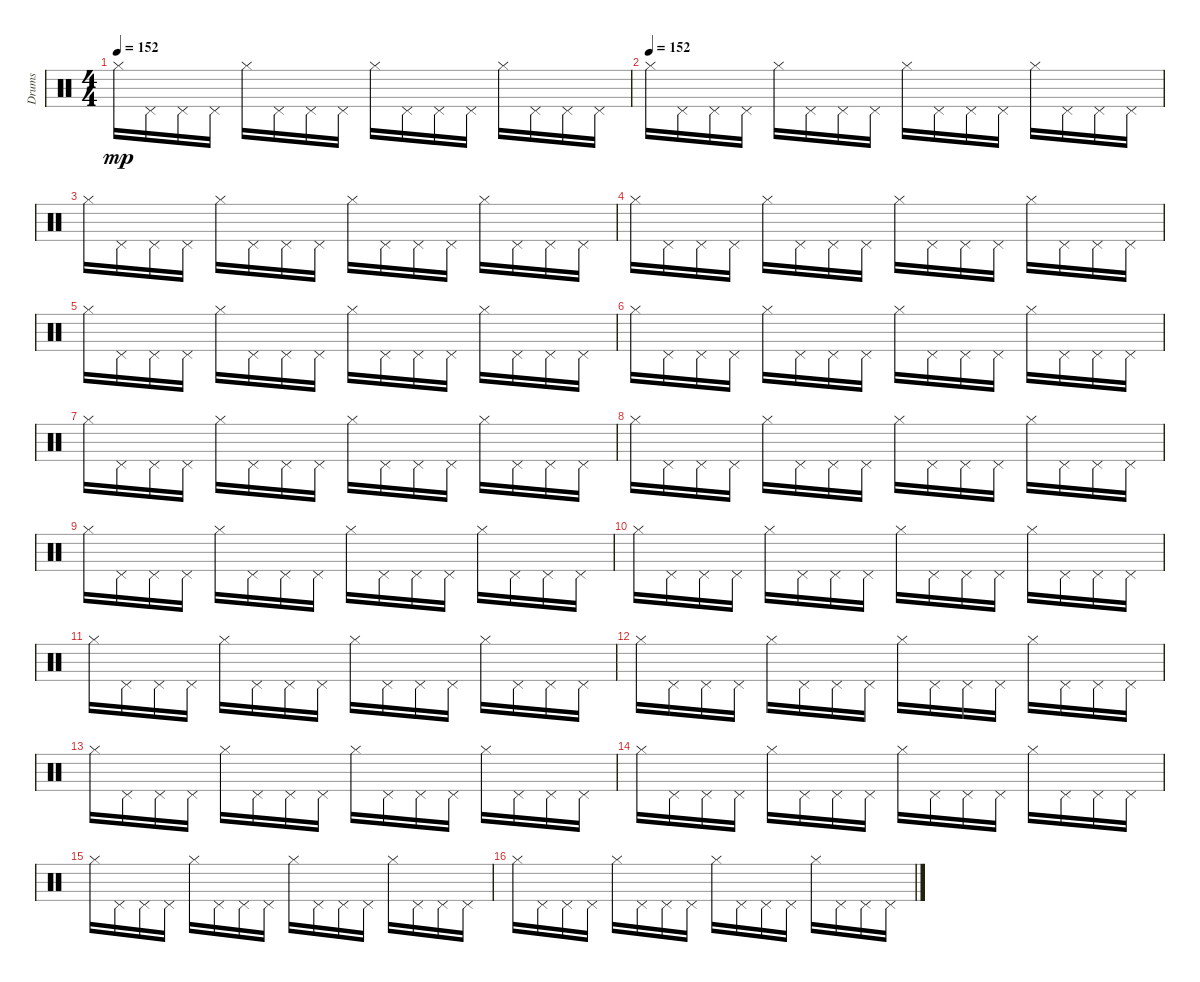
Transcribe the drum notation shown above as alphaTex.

\track ("Drums" "Drums") {instrument percussion}
\staff {score}
\articulation defaults
\ts (4 4)
\tempo 152
\clef neutral
\ks c "Hi-Hat (closed)".16{dy mp} "Pedal Hi-Hat (hit)".16 "Pedal Hi-Hat (hit)".16 "Pedal Hi-Hat (hit)".16 "Hi-Hat (closed)".16 "Pedal Hi-Hat (hit)".16 "Pedal Hi-Hat (hit)".16 "Pedal Hi-Hat (hit)".16 "Hi-Hat (closed)".16 "Pedal Hi-Hat (hit)".16 "Pedal Hi-Hat (hit)".16 "Pedal Hi-Hat (hit)".16 "Hi-Hat (closed)".16 "Pedal Hi-Hat (hit)".16 "Pedal Hi-Hat (hit)".16 "Pedal Hi-Hat (hit)".16
|
\tempo (152)
"Hi-Hat (closed)".16 "Pedal Hi-Hat (hit)".16 "Pedal Hi-Hat (hit)".16 "Pedal Hi-Hat (hit)".16 "Hi-Hat (closed)".16 "Pedal Hi-Hat (hit)".16 "Pedal Hi-Hat (hit)".16 "Pedal Hi-Hat (hit)".16 "Hi-Hat (closed)".16 "Pedal Hi-Hat (hit)".16 "Pedal Hi-Hat (hit)".16 "Pedal Hi-Hat (hit)".16 "Hi-Hat (closed)".16 "Pedal Hi-Hat (hit)".16 "Pedal Hi-Hat (hit)".16 "Pedal Hi-Hat (hit)".16 |
"Hi-Hat (closed)".16 "Pedal Hi-Hat (hit)".16 "Pedal Hi-Hat (hit)".16 "Pedal Hi-Hat (hit)".16 "Hi-Hat (closed)".16 "Pedal Hi-Hat (hit)".16 "Pedal Hi-Hat (hit)".16 "Pedal Hi-Hat (hit)".16 "Hi-Hat (closed)".16 "Pedal Hi-Hat (hit)".16 "Pedal Hi-Hat (hit)".16 "Pedal Hi-Hat (hit)".16 "Hi-Hat (closed)".16 "Pedal Hi-Hat (hit)".16 "Pedal Hi-Hat (hit)".16 "Pedal Hi-Hat (hit)".16 |
"Hi-Hat (closed)".16 "Pedal Hi-Hat (hit)".16 "Pedal Hi-Hat (hit)".16 "Pedal Hi-Hat (hit)".16 "Hi-Hat (closed)".16 "Pedal Hi-Hat (hit)".16 "Pedal Hi-Hat (hit)".16 "Pedal Hi-Hat (hit)".16 "Hi-Hat (closed)".16 "Pedal Hi-Hat (hit)".16 "Pedal Hi-Hat (hit)".16 "Pedal Hi-Hat (hit)".16 "Hi-Hat (closed)".16 "Pedal Hi-Hat (hit)".16 "Pedal Hi-Hat (hit)".16 "Pedal Hi-Hat (hit)".16 |
"Hi-Hat (closed)".16 "Pedal Hi-Hat (hit)".16 "Pedal Hi-Hat (hit)".16 "Pedal Hi-Hat (hit)".16 "Hi-Hat (closed)".16 "Pedal Hi-Hat (hit)".16 "Pedal Hi-Hat (hit)".16 "Pedal Hi-Hat (hit)".16 "Hi-Hat (closed)".16 "Pedal Hi-Hat (hit)".16 "Pedal Hi-Hat (hit)".16 "Pedal Hi-Hat (hit)".16 "Hi-Hat (closed)".16 "Pedal Hi-Hat (hit)".16 "Pedal Hi-Hat (hit)".16 "Pedal Hi-Hat (hit)".16 |
"Hi-Hat (closed)".16 "Pedal Hi-Hat (hit)".16 "Pedal Hi-Hat (hit)".16 "Pedal Hi-Hat (hit)".16 "Hi-Hat (closed)".16 "Pedal Hi-Hat (hit)".16 "Pedal Hi-Hat (hit)".16 "Pedal Hi-Hat (hit)".16 "Hi-Hat (closed)".16 "Pedal Hi-Hat (hit)".16 "Pedal Hi-Hat (hit)".16 "Pedal Hi-Hat (hit)".16 "Hi-Hat (closed)".16 "Pedal Hi-Hat (hit)".16 "Pedal Hi-Hat (hit)".16 "Pedal Hi-Hat (hit)".16 |
"Hi-Hat (closed)".16 "Pedal Hi-Hat (hit)".16 "Pedal Hi-Hat (hit)".16 "Pedal Hi-Hat (hit)".16 "Hi-Hat (closed)".16 "Pedal Hi-Hat (hit)".16 "Pedal Hi-Hat (hit)".16 "Pedal Hi-Hat (hit)".16 "Hi-Hat (closed)".16 "Pedal Hi-Hat (hit)".16 "Pedal Hi-Hat (hit)".16 "Pedal Hi-Hat (hit)".16 "Hi-Hat (closed)".16 "Pedal Hi-Hat (hit)".16 "Pedal Hi-Hat (hit)".16 "Pedal Hi-Hat (hit)".16 |
"Hi-Hat (closed)".16 "Pedal Hi-Hat (hit)".16 "Pedal Hi-Hat (hit)".16 "Pedal Hi-Hat (hit)".16 "Hi-Hat (closed)".16 "Pedal Hi-Hat (hit)".16 "Pedal Hi-Hat (hit)".16 "Pedal Hi-Hat (hit)".16 "Hi-Hat (closed)".16 "Pedal Hi-Hat (hit)".16 "Pedal Hi-Hat (hit)".16 "Pedal Hi-Hat (hit)".16 "Hi-Hat (closed)".16 "Pedal Hi-Hat (hit)".16 "Pedal Hi-Hat (hit)".16 "Pedal Hi-Hat (hit)".16 |
"Hi-Hat (closed)".16 "Pedal Hi-Hat (hit)".16 "Pedal Hi-Hat (hit)".16 "Pedal Hi-Hat (hit)".16 "Hi-Hat (closed)".16 "Pedal Hi-Hat (hit)".16 "Pedal Hi-Hat (hit)".16 "Pedal Hi-Hat (hit)".16 "Hi-Hat (closed)".16 "Pedal Hi-Hat (hit)".16 "Pedal Hi-Hat (hit)".16 "Pedal Hi-Hat (hit)".16 "Hi-Hat (closed)".16 "Pedal Hi-Hat (hit)".16 "Pedal Hi-Hat (hit)".16 "Pedal Hi-Hat (hit)".16 |
"Hi-Hat (closed)".16 "Pedal Hi-Hat (hit)".16 "Pedal Hi-Hat (hit)".16 "Pedal Hi-Hat (hit)".16 "Hi-Hat (closed)".16 "Pedal Hi-Hat (hit)".16 "Pedal Hi-Hat (hit)".16 "Pedal Hi-Hat (hit)".16 "Hi-Hat (closed)".16 "Pedal Hi-Hat (hit)".16 "Pedal Hi-Hat (hit)".16 "Pedal Hi-Hat (hit)".16 "Hi-Hat (closed)".16 "Pedal Hi-Hat (hit)".16 "Pedal Hi-Hat (hit)".16 "Pedal Hi-Hat (hit)".16 |
"Hi-Hat (closed)".16 "Pedal Hi-Hat (hit)".16 "Pedal Hi-Hat (hit)".16 "Pedal Hi-Hat (hit)".16 "Hi-Hat (closed)".16 "Pedal Hi-Hat (hit)".16 "Pedal Hi-Hat (hit)".16 "Pedal Hi-Hat (hit)".16 "Hi-Hat (closed)".16 "Pedal Hi-Hat (hit)".16 "Pedal Hi-Hat (hit)".16 "Pedal Hi-Hat (hit)".16 "Hi-Hat (closed)".16 "Pedal Hi-Hat (hit)".16 "Pedal Hi-Hat (hit)".16 "Pedal Hi-Hat (hit)".16 |
"Hi-Hat (closed)".16 "Pedal Hi-Hat (hit)".16 "Pedal Hi-Hat (hit)".16 "Pedal Hi-Hat (hit)".16 "Hi-Hat (closed)".16 "Pedal Hi-Hat (hit)".16 "Pedal Hi-Hat (hit)".16 "Pedal Hi-Hat (hit)".16 "Hi-Hat (closed)".16 "Pedal Hi-Hat (hit)".16 "Pedal Hi-Hat (hit)".16 "Pedal Hi-Hat (hit)".16 "Hi-Hat (closed)".16 "Pedal Hi-Hat (hit)".16 "Pedal Hi-Hat (hit)".16 "Pedal Hi-Hat (hit)".16 |
"Hi-Hat (closed)".16 "Pedal Hi-Hat (hit)".16 "Pedal Hi-Hat (hit)".16 "Pedal Hi-Hat (hit)".16 "Hi-Hat (closed)".16 "Pedal Hi-Hat (hit)".16 "Pedal Hi-Hat (hit)".16 "Pedal Hi-Hat (hit)".16 "Hi-Hat (closed)".16 "Pedal Hi-Hat (hit)".16 "Pedal Hi-Hat (hit)".16 "Pedal Hi-Hat (hit)".16 "Hi-Hat (closed)".16 "Pedal Hi-Hat (hit)".16 "Pedal Hi-Hat (hit)".16 "Pedal Hi-Hat (hit)".16 |
"Hi-Hat (closed)".16 "Pedal Hi-Hat (hit)".16 "Pedal Hi-Hat (hit)".16 "Pedal Hi-Hat (hit)".16 "Hi-Hat (closed)".16 "Pedal Hi-Hat (hit)".16 "Pedal Hi-Hat (hit)".16 "Pedal Hi-Hat (hit)".16 "Hi-Hat (closed)".16 "Pedal Hi-Hat (hit)".16 "Pedal Hi-Hat (hit)".16 "Pedal Hi-Hat (hit)".16 "Hi-Hat (closed)".16 "Pedal Hi-Hat (hit)".16 "Pedal Hi-Hat (hit)".16 "Pedal Hi-Hat (hit)".16 |
"Hi-Hat (closed)".16 "Pedal Hi-Hat (hit)".16 "Pedal Hi-Hat (hit)".16 "Pedal Hi-Hat (hit)".16 "Hi-Hat (closed)".16 "Pedal Hi-Hat (hit)".16 "Pedal Hi-Hat (hit)".16 "Pedal Hi-Hat (hit)".16 "Hi-Hat (closed)".16 "Pedal Hi-Hat (hit)".16 "Pedal Hi-Hat (hit)".16 "Pedal Hi-Hat (hit)".16 "Hi-Hat (closed)".16 "Pedal Hi-Hat (hit)".16 "Pedal Hi-Hat (hit)".16 "Pedal Hi-Hat (hit)".16 |
"Hi-Hat (closed)".16 "Pedal Hi-Hat (hit)".16 "Pedal Hi-Hat (hit)".16 "Pedal Hi-Hat (hit)".16 "Hi-Hat (closed)".16 "Pedal Hi-Hat (hit)".16 "Pedal Hi-Hat (hit)".16 "Pedal Hi-Hat (hit)".16 "Hi-Hat (closed)".16 "Pedal Hi-Hat (hit)".16 "Pedal Hi-Hat (hit)".16 "Pedal Hi-Hat (hit)".16 "Hi-Hat (closed)".16 "Pedal Hi-Hat (hit)".16 "Pedal Hi-Hat (hit)".16 "Pedal Hi-Hat (hit)".16
